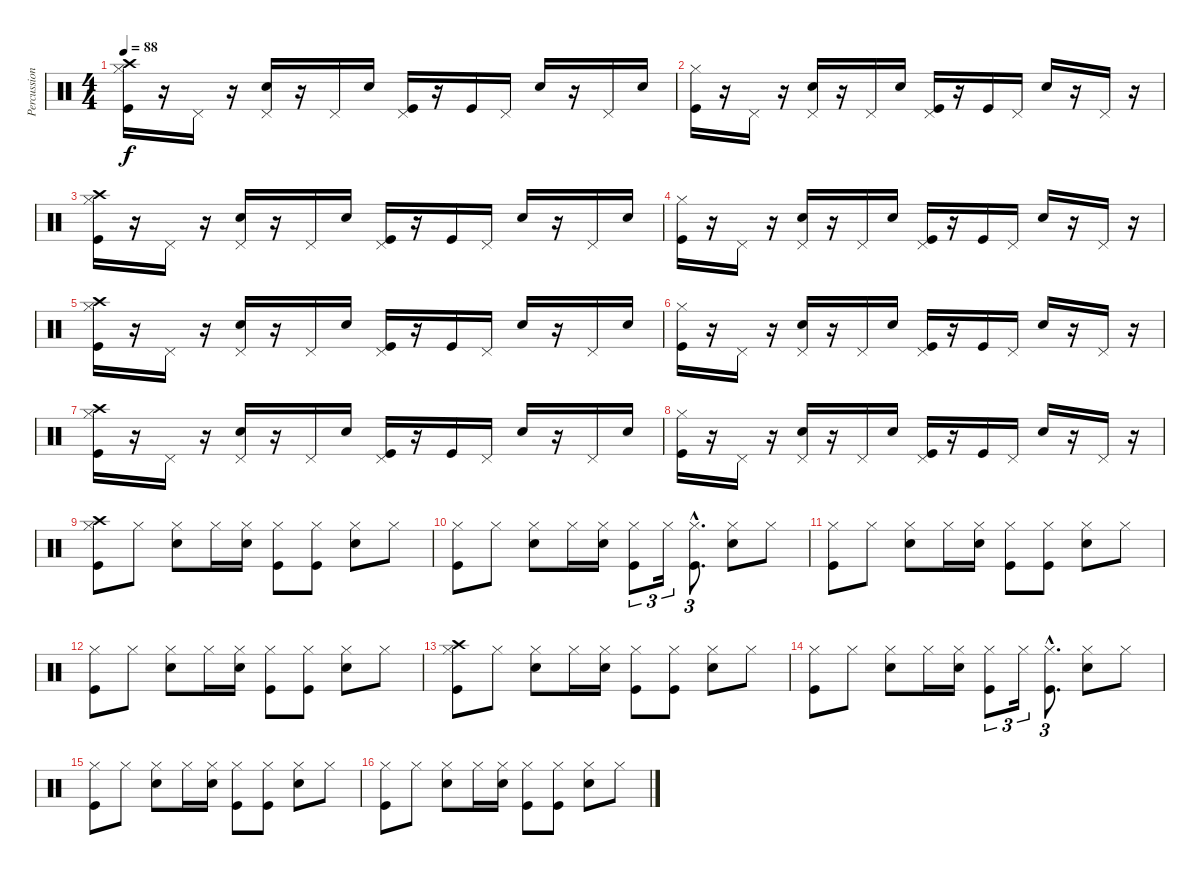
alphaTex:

\track ("Percussions" "Percussion") {instrument percussion}
\staff {score}
\articulation defaults
\ts (4 4)
\tempo 88
\clef neutral
\ks c
("Crash high (hit)" "Hi-Hat (closed)" "Kick (hit)").16{dy f} r.16 "Pedal Hi-Hat (hit)".16 r.16 ("Electric Snare (hit)" "Pedal Hi-Hat (hit)").16 r.16 "Pedal Hi-Hat (hit)".16 "Electric Snare (hit)".16 ("Kick (hit)" "Pedal Hi-Hat (hit)").16 r.16 "Kick (hit)".16 "Pedal Hi-Hat (hit)".16 "Electric Snare (hit)".16 r.16 "Pedal Hi-Hat (hit)".16 "Electric Snare (hit)".16 |
("Hi-Hat (closed)" "Kick (hit)").16 r.16 "Pedal Hi-Hat (hit)".16 r.16 ("Electric Snare (hit)" "Pedal Hi-Hat (hit)").16 r.16 "Pedal Hi-Hat (hit)".16 "Electric Snare (hit)".16 ("Kick (hit)" "Pedal Hi-Hat (hit)").16 r.16 "Kick (hit)".16 "Pedal Hi-Hat (hit)".16 "Electric Snare (hit)".16 r.16 "Pedal Hi-Hat (hit)".16 r.16 |
("Crash high (hit)" "Hi-Hat (closed)" "Kick (hit)").16 r.16 "Pedal Hi-Hat (hit)".16 r.16 ("Electric Snare (hit)" "Pedal Hi-Hat (hit)").16 r.16 "Pedal Hi-Hat (hit)".16 "Electric Snare (hit)".16 ("Kick (hit)" "Pedal Hi-Hat (hit)").16 r.16 "Kick (hit)".16 "Pedal Hi-Hat (hit)".16 "Electric Snare (hit)".16 r.16 "Pedal Hi-Hat (hit)".16 "Electric Snare (hit)".16 |
("Hi-Hat (closed)" "Kick (hit)").16 r.16 "Pedal Hi-Hat (hit)".16 r.16 ("Electric Snare (hit)" "Pedal Hi-Hat (hit)").16 r.16 "Pedal Hi-Hat (hit)".16 "Electric Snare (hit)".16 ("Kick (hit)" "Pedal Hi-Hat (hit)").16 r.16 "Kick (hit)".16 "Pedal Hi-Hat (hit)".16 "Electric Snare (hit)".16 r.16 "Pedal Hi-Hat (hit)".16 r.16 |
("Crash high (hit)" "Hi-Hat (closed)" "Kick (hit)").16 r.16 "Pedal Hi-Hat (hit)".16 r.16 ("Electric Snare (hit)" "Pedal Hi-Hat (hit)").16 r.16 "Pedal Hi-Hat (hit)".16 "Electric Snare (hit)".16 ("Kick (hit)" "Pedal Hi-Hat (hit)").16 r.16 "Kick (hit)".16 "Pedal Hi-Hat (hit)".16 "Electric Snare (hit)".16 r.16 "Pedal Hi-Hat (hit)".16 "Electric Snare (hit)".16 |
("Hi-Hat (closed)" "Kick (hit)").16 r.16 "Pedal Hi-Hat (hit)".16 r.16 ("Electric Snare (hit)" "Pedal Hi-Hat (hit)").16 r.16 "Pedal Hi-Hat (hit)".16 "Electric Snare (hit)".16 ("Kick (hit)" "Pedal Hi-Hat (hit)").16 r.16 "Kick (hit)".16 "Pedal Hi-Hat (hit)".16 "Electric Snare (hit)".16 r.16 "Pedal Hi-Hat (hit)".16 r.16 |
("Crash high (hit)" "Hi-Hat (closed)" "Kick (hit)").16 r.16 "Pedal Hi-Hat (hit)".16 r.16 ("Electric Snare (hit)" "Pedal Hi-Hat (hit)").16 r.16 "Pedal Hi-Hat (hit)".16 "Electric Snare (hit)".16 ("Kick (hit)" "Pedal Hi-Hat (hit)").16 r.16 "Kick (hit)".16 "Pedal Hi-Hat (hit)".16 "Electric Snare (hit)".16 r.16 "Pedal Hi-Hat (hit)".16 "Electric Snare (hit)".16 |
("Hi-Hat (closed)" "Kick (hit)").16 r.16 "Pedal Hi-Hat (hit)".16 r.16 ("Electric Snare (hit)" "Pedal Hi-Hat (hit)").16 r.16 "Pedal Hi-Hat (hit)".16 "Electric Snare (hit)".16 ("Kick (hit)" "Pedal Hi-Hat (hit)").16 r.16 "Kick (hit)".16 "Pedal Hi-Hat (hit)".16 "Electric Snare (hit)".16 r.16 "Pedal Hi-Hat (hit)".16 r.16 |
("Crash high (hit)" "Hi-Hat (closed)" "Kick (hit)").8 "Hi-Hat (closed)".8 ("Electric Snare (hit)" "Hi-Hat (closed)").8 "Hi-Hat (closed)".16 ("Electric Snare (hit)" "Hi-Hat (closed)").16 ("Hi-Hat (closed)" "Kick (hit)").8 ("Hi-Hat (closed)" "Kick (hit)").8 ("Electric Snare (hit)" "Hi-Hat (closed)").8 "Hi-Hat (closed)".8 |
("Hi-Hat (closed)" "Kick (hit)").8 "Hi-Hat (closed)".8 ("Electric Snare (hit)" "Hi-Hat (closed)").8 "Hi-Hat (closed)".16 ("Electric Snare (hit)" "Hi-Hat (closed)").16 ("Hi-Hat (closed)" "Kick (hit)").8{tu (3 2)} "Hi-Hat (closed)".16{tu (3 2)} ("Hi-Hat (closed)"{hac} "Kick (hit)"{hac}).8{d tu (3 2)} ("Electric Snare (hit)" "Hi-Hat (closed)").8 "Hi-Hat (closed)".8 |
("Hi-Hat (closed)" "Kick (hit)").8 "Hi-Hat (closed)".8 ("Electric Snare (hit)" "Hi-Hat (closed)").8 "Hi-Hat (closed)".16 ("Electric Snare (hit)" "Hi-Hat (closed)").16 ("Hi-Hat (closed)" "Kick (hit)").8 ("Hi-Hat (closed)" "Kick (hit)").8 ("Electric Snare (hit)" "Hi-Hat (closed)").8 "Hi-Hat (closed)".8 |
("Hi-Hat (closed)" "Kick (hit)").8 "Hi-Hat (closed)".8 ("Electric Snare (hit)" "Hi-Hat (closed)").8 "Hi-Hat (closed)".16 ("Electric Snare (hit)" "Hi-Hat (closed)").16 ("Hi-Hat (closed)" "Kick (hit)").8 ("Hi-Hat (closed)" "Kick (hit)").8 ("Electric Snare (hit)" "Hi-Hat (closed)").8 "Hi-Hat (closed)".8 |
("Crash high (hit)" "Hi-Hat (closed)" "Kick (hit)").8 "Hi-Hat (closed)".8 ("Electric Snare (hit)" "Hi-Hat (closed)").8 "Hi-Hat (closed)".16 ("Electric Snare (hit)" "Hi-Hat (closed)").16 ("Hi-Hat (closed)" "Kick (hit)").8 ("Hi-Hat (closed)" "Kick (hit)").8 ("Electric Snare (hit)" "Hi-Hat (closed)").8 "Hi-Hat (closed)".8 |
("Hi-Hat (closed)" "Kick (hit)").8 "Hi-Hat (closed)".8 ("Electric Snare (hit)" "Hi-Hat (closed)").8 "Hi-Hat (closed)".16 ("Electric Snare (hit)" "Hi-Hat (closed)").16 ("Hi-Hat (closed)" "Kick (hit)").8{tu (3 2)} "Hi-Hat (closed)".16{tu (3 2)} ("Hi-Hat (closed)"{hac} "Kick (hit)"{hac}).8{d tu (3 2)} ("Electric Snare (hit)" "Hi-Hat (closed)").8 "Hi-Hat (closed)".8 |
("Hi-Hat (closed)" "Kick (hit)").8 "Hi-Hat (closed)".8 ("Electric Snare (hit)" "Hi-Hat (closed)").8 "Hi-Hat (closed)".16 ("Electric Snare (hit)" "Hi-Hat (closed)").16 ("Hi-Hat (closed)" "Kick (hit)").8 ("Hi-Hat (closed)" "Kick (hit)").8 ("Electric Snare (hit)" "Hi-Hat (closed)").8 "Hi-Hat (closed)".8 |
("Hi-Hat (closed)" "Kick (hit)").8 "Hi-Hat (closed)".8 ("Electric Snare (hit)" "Hi-Hat (closed)").8 "Hi-Hat (closed)".16 ("Electric Snare (hit)" "Hi-Hat (closed)").16 ("Hi-Hat (closed)" "Kick (hit)").8 ("Hi-Hat (closed)" "Kick (hit)").8 ("Electric Snare (hit)" "Hi-Hat (closed)").8 "Hi-Hat (closed)".8
